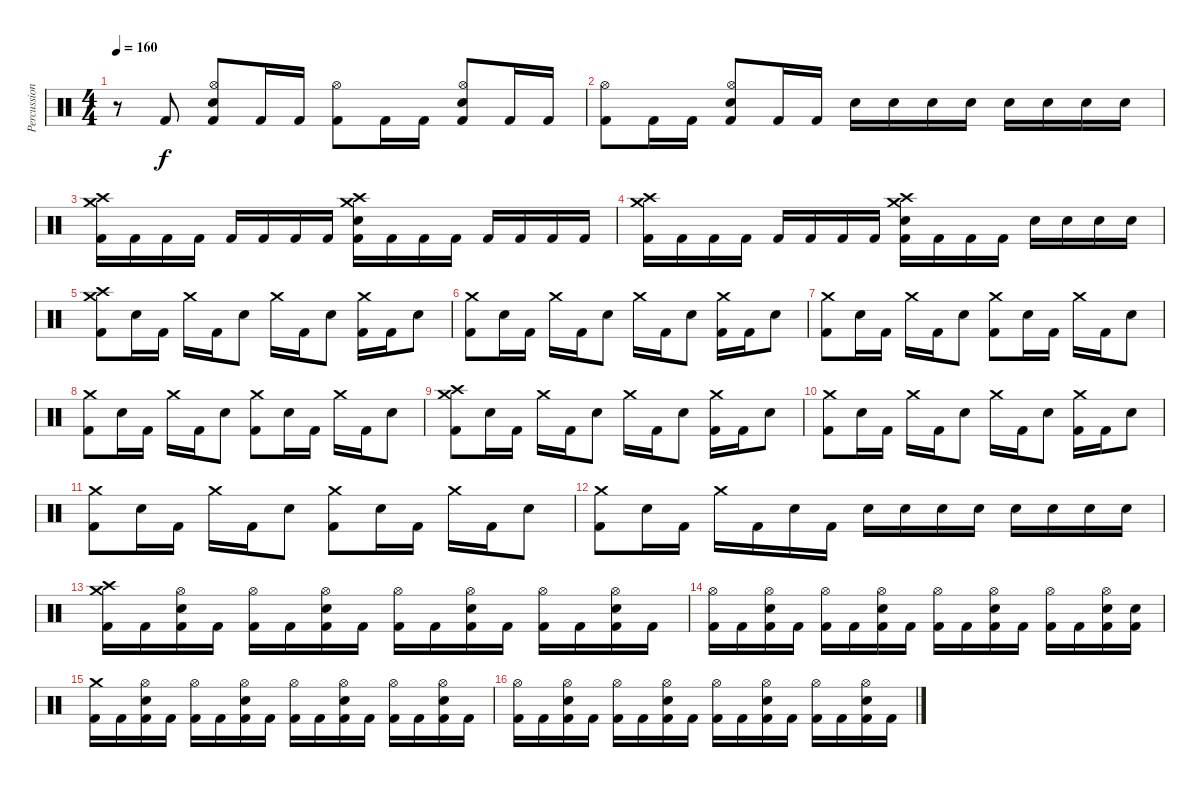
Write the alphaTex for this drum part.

\track ("Percussion" "Percussion") {instrument percussion}
\staff {score}
\articulation defaults
\ts (4 4)
\tempo 160
\clef neutral
\ks c
r.8{dy f} "Kick (hit) 2".8 ("Hi-Hat (open)" "Electric Snare (hit)" "Kick (hit) 2").8 "Kick (hit) 2".16 "Kick (hit) 2".16 ("Hi-Hat (open)" "Kick (hit) 2").8 "Kick (hit) 2".16 "Kick (hit) 2".16 ("Hi-Hat (open)" "Electric Snare (hit)" "Kick (hit) 2").8 "Kick (hit) 2".16 "Kick (hit) 2".16 |
("Hi-Hat (open)" "Kick (hit) 2").8 "Kick (hit) 2".16 "Kick (hit) 2".16 ("Hi-Hat (open)" "Electric Snare (hit)" "Kick (hit) 2").8 "Kick (hit) 2".16 "Kick (hit) 2".16 "Electric Snare (hit)".16 "Electric Snare (hit)".16 "Electric Snare (hit)".16 "Electric Snare (hit)".16 "Electric Snare (hit)".16 "Electric Snare (hit)".16 "Electric Snare (hit)".16 "Electric Snare (hit)".16 |
("Crash medium (hit)" "Crash high (hit)" "Kick (hit) 2").16 "Kick (hit) 2".16 "Kick (hit) 2".16 "Kick (hit) 2".16 "Kick (hit) 2".16 "Kick (hit) 2".16 "Kick (hit) 2".16 "Kick (hit) 2".16 ("Crash medium (hit)" "Crash high (hit)" "Electric Snare (hit)" "Kick (hit) 2").16 "Kick (hit) 2".16 "Kick (hit) 2".16 "Kick (hit) 2".16 "Kick (hit) 2".16 "Kick (hit) 2".16 "Kick (hit) 2".16 "Kick (hit) 2".16 |
("Crash medium (hit)" "Crash high (hit)" "Kick (hit) 2").16 "Kick (hit) 2".16 "Kick (hit) 2".16 "Kick (hit) 2".16 "Kick (hit) 2".16 "Kick (hit) 2".16 "Kick (hit) 2".16 "Kick (hit) 2".16 ("Crash medium (hit)" "Crash high (hit)" "Electric Snare (hit)" "Kick (hit) 2").16 "Kick (hit) 2".16 "Kick (hit) 2".16 "Kick (hit) 2".16 "Electric Snare (hit)".16 "Electric Snare (hit)".16 "Electric Snare (hit)".16 "Electric Snare (hit)".16 |
("Crash high (hit)" "Crash medium (hit)" "Kick (hit) 2").8 "Electric Snare (hit)".16 "Kick (hit) 2".16 "Crash medium (hit)".16 "Kick (hit) 2".16 "Electric Snare (hit)".8 "Crash medium (hit)".16 "Kick (hit) 2".16 "Electric Snare (hit)".8 ("Crash medium (hit)" "Kick (hit) 2").16 "Kick (hit) 2".16 "Electric Snare (hit)".8 |
("Crash medium (hit)" "Kick (hit) 2").8 "Electric Snare (hit)".16 "Kick (hit) 2".16 "Crash medium (hit)".16 "Kick (hit) 2".16 "Electric Snare (hit)".8 "Crash medium (hit)".16 "Kick (hit) 2".16 "Electric Snare (hit)".8 ("Crash medium (hit)" "Kick (hit) 2").16 "Kick (hit) 2".16 "Electric Snare (hit)".8 |
("Crash medium (hit)" "Kick (hit) 2").8 "Electric Snare (hit)".16 "Kick (hit) 2".16 "Crash medium (hit)".16 "Kick (hit) 2".16 "Electric Snare (hit)".8 ("Crash medium (hit)" "Kick (hit) 2").8 "Electric Snare (hit)".16 "Kick (hit) 2".16 "Crash medium (hit)".16 "Kick (hit) 2".16 "Electric Snare (hit)".8 |
("Crash medium (hit)" "Kick (hit) 2").8 "Electric Snare (hit)".16 "Kick (hit) 2".16 "Crash medium (hit)".16 "Kick (hit) 2".16 "Electric Snare (hit)".8 ("Crash medium (hit)" "Kick (hit) 2").8 "Electric Snare (hit)".16 "Kick (hit) 2".16 "Crash medium (hit)".16 "Kick (hit) 2".16 "Electric Snare (hit)".8 |
("Crash high (hit)" "Crash medium (hit)" "Kick (hit) 2").8 "Electric Snare (hit)".16 "Kick (hit) 2".16 "Crash medium (hit)".16 "Kick (hit) 2".16 "Electric Snare (hit)".8 "Crash medium (hit)".16 "Kick (hit) 2".16 "Electric Snare (hit)".8 ("Crash medium (hit)" "Kick (hit) 2").16 "Kick (hit) 2".16 "Electric Snare (hit)".8 |
("Crash medium (hit)" "Kick (hit) 2").8 "Electric Snare (hit)".16 "Kick (hit) 2".16 "Crash medium (hit)".16 "Kick (hit) 2".16 "Electric Snare (hit)".8 "Crash medium (hit)".16 "Kick (hit) 2".16 "Electric Snare (hit)".8 ("Crash medium (hit)" "Kick (hit) 2").16 "Kick (hit) 2".16 "Electric Snare (hit)".8 |
("Crash medium (hit)" "Kick (hit) 2").8 "Electric Snare (hit)".16 "Kick (hit) 2".16 "Crash medium (hit)".16 "Kick (hit) 2".16 "Electric Snare (hit)".8 ("Crash medium (hit)" "Kick (hit) 2").8 "Electric Snare (hit)".16 "Kick (hit) 2".16 "Crash medium (hit)".16 "Kick (hit) 2".16 "Electric Snare (hit)".8 |
("Crash medium (hit)" "Kick (hit) 2").8 "Electric Snare (hit)".16 "Kick (hit) 2".16 "Crash medium (hit)".16 "Kick (hit) 2".16 "Electric Snare (hit)".16 "Kick (hit) 2".16 "Electric Snare (hit)".16 "Electric Snare (hit)".16 "Electric Snare (hit)".16 "Electric Snare (hit)".16 "Electric Snare (hit)".16 "Electric Snare (hit)".16 "Electric Snare (hit)".16 "Electric Snare (hit)".16 |
("Crash medium (hit)" "Crash high (hit)" "Kick (hit) 2").16 "Kick (hit) 2".16 ("Hi-Hat (open)" "Electric Snare (hit)" "Kick (hit) 2").16 "Kick (hit) 2".16 ("Hi-Hat (open)" "Kick (hit) 2").16 "Kick (hit) 2".16 ("Hi-Hat (open)" "Electric Snare (hit)" "Kick (hit) 2").16 "Kick (hit) 2".16 ("Hi-Hat (open)" "Kick (hit) 2").16 "Kick (hit) 2".16 ("Hi-Hat (open)" "Electric Snare (hit)" "Kick (hit) 2").16 "Kick (hit) 2".16 ("Hi-Hat (open)" "Kick (hit) 2").16 "Kick (hit) 2".16 ("Hi-Hat (open)" "Electric Snare (hit)" "Kick (hit) 2").16 "Kick (hit) 2".16 |
("Hi-Hat (open)" "Kick (hit) 2").16 "Kick (hit) 2".16 ("Hi-Hat (open)" "Electric Snare (hit)" "Kick (hit) 2").16 "Kick (hit) 2".16 ("Hi-Hat (open)" "Kick (hit) 2").16 "Kick (hit) 2".16 ("Hi-Hat (open)" "Electric Snare (hit)" "Kick (hit) 2").16 "Kick (hit) 2".16 ("Hi-Hat (open)" "Kick (hit) 2").16 "Kick (hit) 2".16 ("Hi-Hat (open)" "Electric Snare (hit)" "Kick (hit) 2").16 "Kick (hit) 2".16 ("Hi-Hat (open)" "Kick (hit) 2").16 "Kick (hit) 2".16 ("Hi-Hat (open)" "Electric Snare (hit)" "Kick (hit) 2").16 ("Electric Snare (hit)" "Kick (hit) 2").16 |
("Crash medium (hit)" "Kick (hit) 2").16 "Kick (hit) 2".16 ("Hi-Hat (open)" "Electric Snare (hit)" "Kick (hit) 2").16 "Kick (hit) 2".16 ("Hi-Hat (open)" "Kick (hit) 2").16 "Kick (hit) 2".16 ("Hi-Hat (open)" "Electric Snare (hit)" "Kick (hit) 2").16 "Kick (hit) 2".16 ("Hi-Hat (open)" "Kick (hit) 2").16 "Kick (hit) 2".16 ("Hi-Hat (open)" "Electric Snare (hit)" "Kick (hit) 2").16 "Kick (hit) 2".16 ("Hi-Hat (open)" "Kick (hit) 2").16 "Kick (hit) 2".16 ("Hi-Hat (open)" "Electric Snare (hit)" "Kick (hit) 2").16 "Kick (hit) 2".16 |
("Hi-Hat (open)" "Kick (hit) 2").16 "Kick (hit) 2".16 ("Hi-Hat (open)" "Electric Snare (hit)" "Kick (hit) 2").16 "Kick (hit) 2".16 ("Hi-Hat (open)" "Kick (hit) 2").16 "Kick (hit) 2".16 ("Hi-Hat (open)" "Electric Snare (hit)" "Kick (hit) 2").16 "Kick (hit) 2".16 ("Hi-Hat (open)" "Kick (hit) 2").16 "Kick (hit) 2".16 ("Hi-Hat (open)" "Electric Snare (hit)" "Kick (hit) 2").16 "Kick (hit) 2".16 ("Hi-Hat (open)" "Kick (hit) 2").16 "Kick (hit) 2".16 ("Hi-Hat (open)" "Electric Snare (hit)" "Kick (hit) 2").16 "Kick (hit) 2".16
